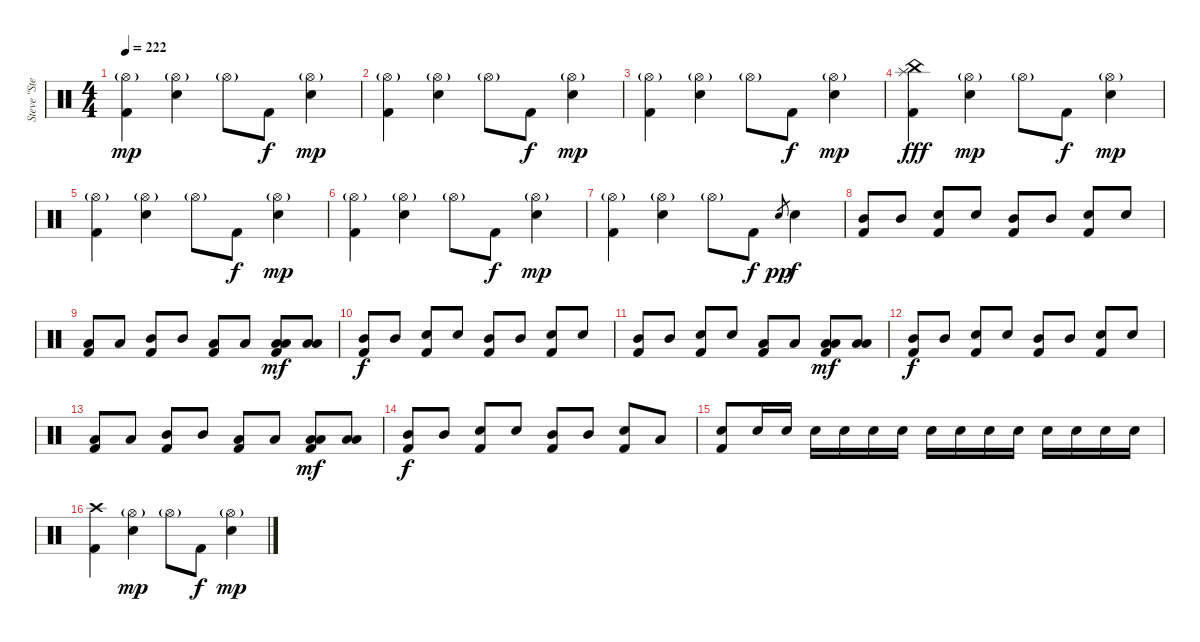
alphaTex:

\track ("Steve \"Stevo32\" Jocz " "Steve \"Ste") {instrument percussion}
\staff {score}
\articulation defaults
\ts (4 4)
\tempo 222
\clef neutral
\ks c
("Hi-Hat (open)"{g} "Kick (hit) 2").4{dy mp} ("Hi-Hat (open)"{g} "Electric Snare (hit)").4 "Hi-Hat (open)"{g}.8 "Kick (hit) 2".8{dy f} ("Hi-Hat (open)"{g} "Electric Snare (hit)").4{dy mp} |
("Hi-Hat (open)"{g} "Kick (hit) 2").4 ("Hi-Hat (open)"{g} "Electric Snare (hit)").4 "Hi-Hat (open)"{g}.8 "Kick (hit) 2".8{dy f} ("Hi-Hat (open)"{g} "Electric Snare (hit)").4{dy mp} |
("Hi-Hat (open)"{g} "Kick (hit) 2").4 ("Hi-Hat (open)"{g} "Electric Snare (hit)").4 "Hi-Hat (open)"{g}.8 "Kick (hit) 2".8{dy f} ("Hi-Hat (open)"{g} "Electric Snare (hit)").4{dy mp} |
("China (hit)" "Splash (hit)" "Kick (hit) 2").4{dy fff} ("Hi-Hat (open)"{g} "Electric Snare (hit)").4{dy mp} "Hi-Hat (open)"{g}.8 "Kick (hit) 2".8{dy f} ("Hi-Hat (open)"{g} "Electric Snare (hit)").4{dy mp} |
("Hi-Hat (open)"{g} "Kick (hit) 2").4 ("Hi-Hat (open)"{g} "Electric Snare (hit)").4 "Hi-Hat (open)"{g}.8 "Kick (hit) 2".8{dy f} ("Hi-Hat (open)"{g} "Electric Snare (hit)").4{dy mp} |
("Hi-Hat (open)"{g} "Kick (hit) 2").4 ("Hi-Hat (open)"{g} "Electric Snare (hit)").4 "Hi-Hat (open)"{g}.8 "Kick (hit) 2".8{dy f} ("Hi-Hat (open)"{g} "Electric Snare (hit)").4{dy mp} |
("Hi-Hat (open)"{g} "Kick (hit) 2").4 ("Hi-Hat (open)"{g} "Electric Snare (hit)").4 "Hi-Hat (open)"{g}.8 "Kick (hit) 2".8{dy f} "Electric Snare (hit)".8{gr dy pp} "Electric Snare (hit)".4{dy f} |
("Mid Tom (hit)" "Kick (hit) 2").8 "Mid Tom (hit)".8 ("Electric Snare (hit)" "Kick (hit) 2").8 "Electric Snare (hit)".8 ("Mid Tom (hit)" "Kick (hit) 2").8 "Mid Tom (hit)".8 ("Electric Snare (hit)" "Kick (hit) 2").8 "Electric Snare (hit)".8 |
("Low Tom (hit)" "Kick (hit) 2").8 "Low Tom (hit)".8 ("Mid Tom (hit)" "Kick (hit) 2").8 "Mid Tom (hit)".8 ("Low Tom (hit)" "Kick (hit) 2").8 "Low Tom (hit)".8 ("Low Floor Tom (hit)" "Low Tom (hit)" "Kick (hit) 2").8{dy mf} ("Low Floor Tom (hit)" "Low Tom (hit)").8 |
("Mid Tom (hit)" "Kick (hit) 2").8{dy f} "Mid Tom (hit)".8 ("Electric Snare (hit)" "Kick (hit) 2").8 "Electric Snare (hit)".8 ("Mid Tom (hit)" "Kick (hit) 2").8 "Mid Tom (hit)".8 ("Electric Snare (hit)" "Kick (hit) 2").8 "Electric Snare (hit)".8 |
("Mid Tom (hit)" "Kick (hit) 2").8 "Mid Tom (hit)".8 ("Electric Snare (hit)" "Kick (hit) 2").8 "Electric Snare (hit)".8 ("Low Tom (hit)" "Kick (hit) 2").8 "Low Tom (hit)".8 ("Low Floor Tom (hit)" "Low Tom (hit)" "Kick (hit) 2").8{dy mf} ("Low Floor Tom (hit)" "Low Tom (hit)").8 |
("Mid Tom (hit)" "Kick (hit) 2").8{dy f} "Mid Tom (hit)".8 ("Electric Snare (hit)" "Kick (hit) 2").8 "Electric Snare (hit)".8 ("Mid Tom (hit)" "Kick (hit) 2").8 "Mid Tom (hit)".8 ("Electric Snare (hit)" "Kick (hit) 2").8 "Electric Snare (hit)".8 |
("Low Tom (hit)" "Kick (hit) 2").8 "Low Tom (hit)".8 ("Mid Tom (hit)" "Kick (hit) 2").8 "Mid Tom (hit)".8 ("Low Tom (hit)" "Kick (hit) 2").8 "Low Tom (hit)".8 ("Low Floor Tom (hit)" "Low Tom (hit)" "Kick (hit) 2").8{dy mf} ("Low Floor Tom (hit)" "Low Tom (hit)").8 |
("Mid Tom (hit)" "Kick (hit) 2").8{dy f} "Mid Tom (hit)".8 ("Electric Snare (hit)" "Kick (hit) 2").8 "Electric Snare (hit)".8 ("Mid Tom (hit)" "Kick (hit) 2").8 "Mid Tom (hit)".8 ("Electric Snare (hit)" "Kick (hit) 2").8 "Low Tom (hit)".8 |
("Electric Snare (hit)" "Kick (hit) 2").8 "Electric Snare (hit)".16 "Electric Snare (hit)".16 "Electric Snare (hit)".16 "Electric Snare (hit)".16 "Electric Snare (hit)".16 "Electric Snare (hit)".16 "Electric Snare (hit)".16 "Electric Snare (hit)".16 "Electric Snare (hit)".16 "Electric Snare (hit)".16 "Electric Snare (hit)".16 "Electric Snare (hit)".16 "Electric Snare (hit)".16 "Electric Snare (hit)".16 |
("Crash high (hit)" "Kick (hit) 2").4 ("Hi-Hat (open)"{g} "Electric Snare (hit)").4{dy mp} "Hi-Hat (open)"{g}.8 "Kick (hit) 2".8{dy f} ("Hi-Hat (open)"{g} "Electric Snare (hit)").4{dy mp}
